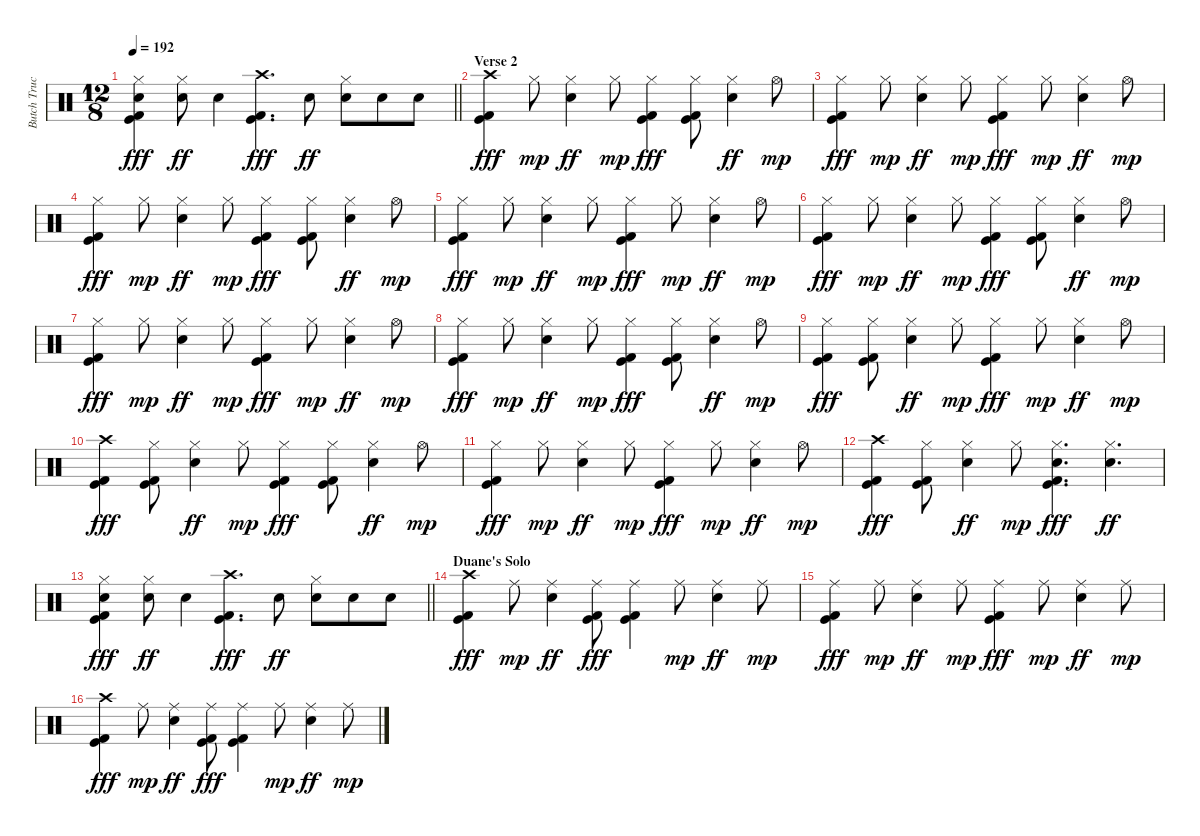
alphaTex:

\track ("Butch Trucks, Jaimoe - Drums" "Butch Truc") {instrument percussion}
\staff {score}
\articulation defaults
\ts (12 8)
\tempo 192
\clef neutral
\barLineRight lightlight
\ks c
("Hi-Hat (closed)" "Snare (hit) 2" "Kick (hit)" "Kick (hit) 2").4{dy fff} ("Hi-Hat (closed)" "Snare (hit) 2").8{dy ff} "Snare (hit) 2".4 ("Crash high (hit)" "Kick (hit)" "Kick (hit) 2").4{d dy fff} "Snare (hit) 2".8{dy ff} ("Hi-Hat (closed)" "Snare (hit) 2").8 "Snare (hit) 2".8 "Snare (hit) 2".8 |
\section ("" "Verse 2")
("Crash high (hit)" "Kick (hit)" "Kick (hit) 2").4{dy fff} "Hi-Hat (closed)".8{dy mp} ("Hi-Hat (closed)" "Snare (hit) 2").4{dy ff} "Hi-Hat (closed)".8{dy mp} ("Hi-Hat (closed)" "Kick (hit)" "Kick (hit) 2").4{dy fff} ("Hi-Hat (closed)" "Kick (hit)" "Kick (hit) 2").8 ("Hi-Hat (closed)" "Snare (hit) 2").4{dy ff} "Hi-Hat (open)".8{dy mp} |
("Hi-Hat (closed)" "Kick (hit)" "Kick (hit) 2").4{dy fff} "Hi-Hat (closed)".8{dy mp} ("Hi-Hat (closed)" "Snare (hit) 2").4{dy ff} "Hi-Hat (closed)".8{dy mp} ("Hi-Hat (closed)" "Kick (hit)" "Kick (hit) 2").4{dy fff} "Hi-Hat (closed)".8{dy mp} ("Hi-Hat (closed)" "Snare (hit) 2").4{dy ff} "Hi-Hat (open)".8{dy mp} |
("Hi-Hat (closed)" "Kick (hit)" "Kick (hit) 2").4{dy fff} "Hi-Hat (closed)".8{dy mp} ("Hi-Hat (closed)" "Snare (hit) 2").4{dy ff} "Hi-Hat (closed)".8{dy mp} ("Hi-Hat (closed)" "Kick (hit)" "Kick (hit) 2").4{dy fff} ("Hi-Hat (closed)" "Kick (hit)" "Kick (hit) 2").8 ("Hi-Hat (closed)" "Snare (hit) 2").4{dy ff} "Hi-Hat (open)".8{dy mp} |
("Hi-Hat (closed)" "Kick (hit)" "Kick (hit) 2").4{dy fff} "Hi-Hat (closed)".8{dy mp} ("Hi-Hat (closed)" "Snare (hit) 2").4{dy ff} "Hi-Hat (closed)".8{dy mp} ("Hi-Hat (closed)" "Kick (hit)" "Kick (hit) 2").4{dy fff} "Hi-Hat (closed)".8{dy mp} ("Hi-Hat (closed)" "Snare (hit) 2").4{dy ff} "Hi-Hat (open)".8{dy mp} |
("Hi-Hat (closed)" "Kick (hit)" "Kick (hit) 2").4{dy fff} "Hi-Hat (closed)".8{dy mp} ("Hi-Hat (closed)" "Snare (hit) 2").4{dy ff} "Hi-Hat (closed)".8{dy mp} ("Hi-Hat (closed)" "Kick (hit)" "Kick (hit) 2").4{dy fff} ("Hi-Hat (closed)" "Kick (hit)" "Kick (hit) 2").8 ("Hi-Hat (closed)" "Snare (hit) 2").4{dy ff} "Hi-Hat (open)".8{dy mp} |
("Hi-Hat (closed)" "Kick (hit)" "Kick (hit) 2").4{dy fff} "Hi-Hat (closed)".8{dy mp} ("Hi-Hat (closed)" "Snare (hit) 2").4{dy ff} "Hi-Hat (closed)".8{dy mp} ("Hi-Hat (closed)" "Kick (hit)" "Kick (hit) 2").4{dy fff} "Hi-Hat (closed)".8{dy mp} ("Hi-Hat (closed)" "Snare (hit) 2").4{dy ff} "Hi-Hat (open)".8{dy mp} |
("Hi-Hat (closed)" "Kick (hit)" "Kick (hit) 2").4{dy fff} "Hi-Hat (closed)".8{dy mp} ("Hi-Hat (closed)" "Snare (hit) 2").4{dy ff} "Hi-Hat (closed)".8{dy mp} ("Hi-Hat (closed)" "Kick (hit)" "Kick (hit) 2").4{dy fff} ("Hi-Hat (closed)" "Kick (hit)" "Kick (hit) 2").8 ("Hi-Hat (closed)" "Snare (hit) 2").4{dy ff} "Hi-Hat (open)".8{dy mp} |
("Hi-Hat (closed)" "Kick (hit)" "Kick (hit) 2").4{dy fff} ("Hi-Hat (closed)" "Kick (hit)" "Kick (hit) 2").8 ("Hi-Hat (closed)" "Snare (hit) 2").4{dy ff} "Hi-Hat (closed)".8{dy mp} ("Hi-Hat (closed)" "Kick (hit)" "Kick (hit) 2").4{dy fff} "Hi-Hat (closed)".8{dy mp} ("Hi-Hat (closed)" "Snare (hit) 2").4{dy ff} "Hi-Hat (open)".8{dy mp} |
("Crash high (hit)" "Kick (hit)" "Kick (hit) 2").4{dy fff} ("Hi-Hat (closed)" "Kick (hit)" "Kick (hit) 2").8 ("Hi-Hat (closed)" "Snare (hit) 2").4{dy ff} "Hi-Hat (closed)".8{dy mp} ("Hi-Hat (closed)" "Kick (hit)" "Kick (hit) 2").4{dy fff} ("Hi-Hat (closed)" "Kick (hit)" "Kick (hit) 2").8 ("Hi-Hat (closed)" "Snare (hit) 2").4{dy ff} "Hi-Hat (open)".8{dy mp} |
("Hi-Hat (closed)" "Kick (hit)" "Kick (hit) 2").4{dy fff} "Hi-Hat (closed)".8{dy mp} ("Hi-Hat (closed)" "Snare (hit) 2").4{dy ff} "Hi-Hat (closed)".8{dy mp} ("Hi-Hat (closed)" "Kick (hit)" "Kick (hit) 2").4{dy fff} "Hi-Hat (closed)".8{dy mp} ("Hi-Hat (closed)" "Snare (hit) 2").4{dy ff} "Hi-Hat (open)".8{dy mp} |
("Crash high (hit)" "Kick (hit)" "Kick (hit) 2").4{dy fff} ("Hi-Hat (closed)" "Kick (hit)" "Kick (hit) 2").8 ("Hi-Hat (closed)" "Snare (hit) 2").4{dy ff} "Hi-Hat (closed)".8{dy mp} ("Hi-Hat (closed)" "Snare (hit) 2" "Kick (hit)" "Kick (hit) 2").4{d dy fff} ("Hi-Hat (closed)" "Snare (hit) 2").4{d dy ff} |
\barLineRight lightlight
("Hi-Hat (closed)" "Snare (hit) 2" "Kick (hit)" "Kick (hit) 2").4{dy fff} ("Hi-Hat (closed)" "Snare (hit) 2").8{dy ff} "Snare (hit) 2".4 ("Crash high (hit)" "Kick (hit)" "Kick (hit) 2").4{d dy fff} "Snare (hit) 2".8{dy ff} ("Hi-Hat (closed)" "Snare (hit) 2").8 "Snare (hit) 2".8 "Snare (hit) 2".8 |
\section ("" "Duane's Solo")
("Crash high (hit)" "Kick (hit)" "Kick (hit) 2").4{dy fff} "Ride (middle)".8{dy mp} ("Ride (middle)" "Snare (hit) 2").4{dy ff} ("Ride (middle)" "Kick (hit)" "Kick (hit) 2").8{dy fff} ("Ride (middle)" "Kick (hit)" "Kick (hit) 2").4 "Ride (middle)".8{dy mp} ("Ride (middle)" "Snare (hit) 2").4{dy ff} "Ride (middle)".8{dy mp} |
("Ride (middle)" "Kick (hit)" "Kick (hit) 2").4{dy fff} "Ride (middle)".8{dy mp} ("Ride (middle)" "Snare (hit) 2").4{dy ff} "Ride (middle)".8{dy mp} ("Ride (middle)" "Kick (hit)" "Kick (hit) 2").4{dy fff} "Ride (middle)".8{dy mp} ("Ride (middle)" "Snare (hit) 2").4{dy ff} "Ride (middle)".8{dy mp} |
("Crash high (hit)" "Kick (hit)" "Kick (hit) 2").4{dy fff} "Ride (middle)".8{dy mp} ("Ride (middle)" "Snare (hit) 2").4{dy ff} ("Ride (middle)" "Kick (hit)" "Kick (hit) 2").8{dy fff} ("Ride (middle)" "Kick (hit)" "Kick (hit) 2").4 "Ride (middle)".8{dy mp} ("Ride (middle)" "Snare (hit) 2").4{dy ff} "Ride (middle)".8{dy mp}
